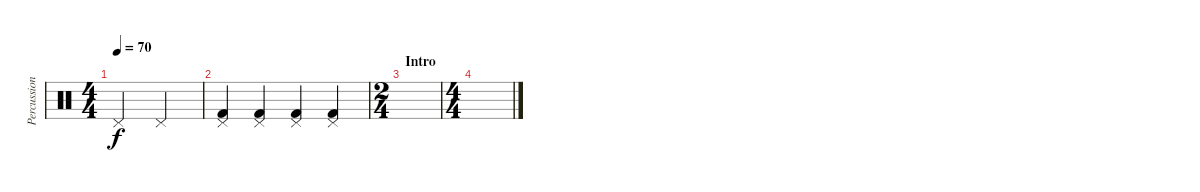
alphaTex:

\track ("Percussion" "Percussion") {instrument percussion}
\staff {score}
\articulation defaults
\ts (4 4)
\tempo 70
\clef neutral
\ks c "Pedal Hi-Hat (hit)".2{dy f} "Pedal Hi-Hat (hit)".2
|
("Pedal Hi-Hat (hit)" "Kick (hit) 2").4 ("Pedal Hi-Hat (hit)" "Kick (hit) 2").4 ("Pedal Hi-Hat (hit)" "Kick (hit) 2").4 ("Pedal Hi-Hat (hit)" "Kick (hit) 2").4 |
\ts (2 4)
\section ("" "Intro")
|
\ts (4 4)
